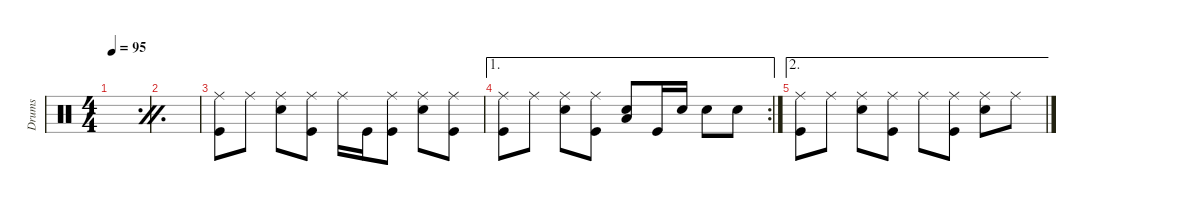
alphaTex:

\defaultSystemsLayout 4
\hideDynamics
\bracketExtendMode groupsimilarinstruments
\singleTrackTrackNamePolicy allsystems
\multiTrackTrackNamePolicy allsystems
\otherSystemsTrackNameOrientation horizontal
\track ("Drumkit" "Drums") {instrument percussion}
\staff {score}
\articulation defaults
\ts (4 4)
\tempo 95
\clef neutral
\simile firstofdouble
\ks c
|
\simile secondofdouble
|
("Kick (hit)" "Ride (middle)").8 "Ride (middle)".8 ("Snare (hit) 2" "Ride (middle)").8 ("Kick (hit)" "Ride (middle)").8 "Ride (middle)".16 "Kick (hit)".16 ("Kick (hit)" "Ride (middle)").8 ("Snare (hit) 2" "Ride (middle)").8 ("Kick (hit)" "Ride (middle)").8 |
\ae 1
\rc 2
("Kick (hit)" "Ride (middle)").8 "Ride (middle)".8 ("Snare (hit) 2" "Ride (middle)").8 ("Kick (hit)" "Ride (middle)").8 ("Snare (hit) 2" "Low Tom (hit)").8 "Kick (hit)".16 "Snare (hit) 2".16 "Snare (hit) 2".8 "Snare (hit) 2".8 |
\ae 2
("Kick (hit)" "Ride (middle)").8 "Ride (middle)".8 ("Snare (hit) 2" "Ride (middle)").8 ("Kick (hit)" "Ride (middle)").8 "Ride (middle)".8 ("Kick (hit)" "Ride (middle)").8 ("Snare (hit) 2" "Ride (middle)").8 "Ride (middle)".8
